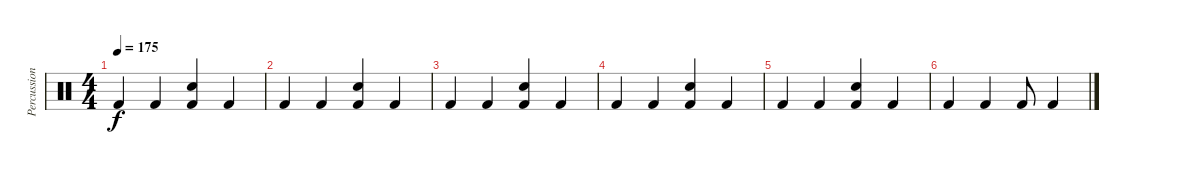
\track ("Percussion" "Percussion") {instrument percussion}
\staff {score}
\articulation defaults
\ts (4 4)
\tempo 175
\clef neutral
\ks c "Kick (hit) 2".4{dy f} "Kick (hit) 2".4
("Snare (hit) 2" "Kick (hit) 2").4 "Kick (hit) 2".4 |
"Kick (hit) 2".4 "Kick (hit) 2".4 ("Snare (hit) 2" "Kick (hit) 2").4 "Kick (hit) 2".4 |
"Kick (hit) 2".4 "Kick (hit) 2".4 ("Snare (hit) 2" "Kick (hit) 2").4 "Kick (hit) 2".4 |
"Kick (hit) 2".4 "Kick (hit) 2".4 ("Snare (hit) 2" "Kick (hit) 2").4 "Kick (hit) 2".4 |
"Kick (hit) 2".4 "Kick (hit) 2".4 ("Snare (hit) 2" "Kick (hit) 2").4 "Kick (hit) 2".4 |
"Kick (hit) 2".4 "Kick (hit) 2".4 "Kick (hit) 2".8 "Kick (hit) 2".4
